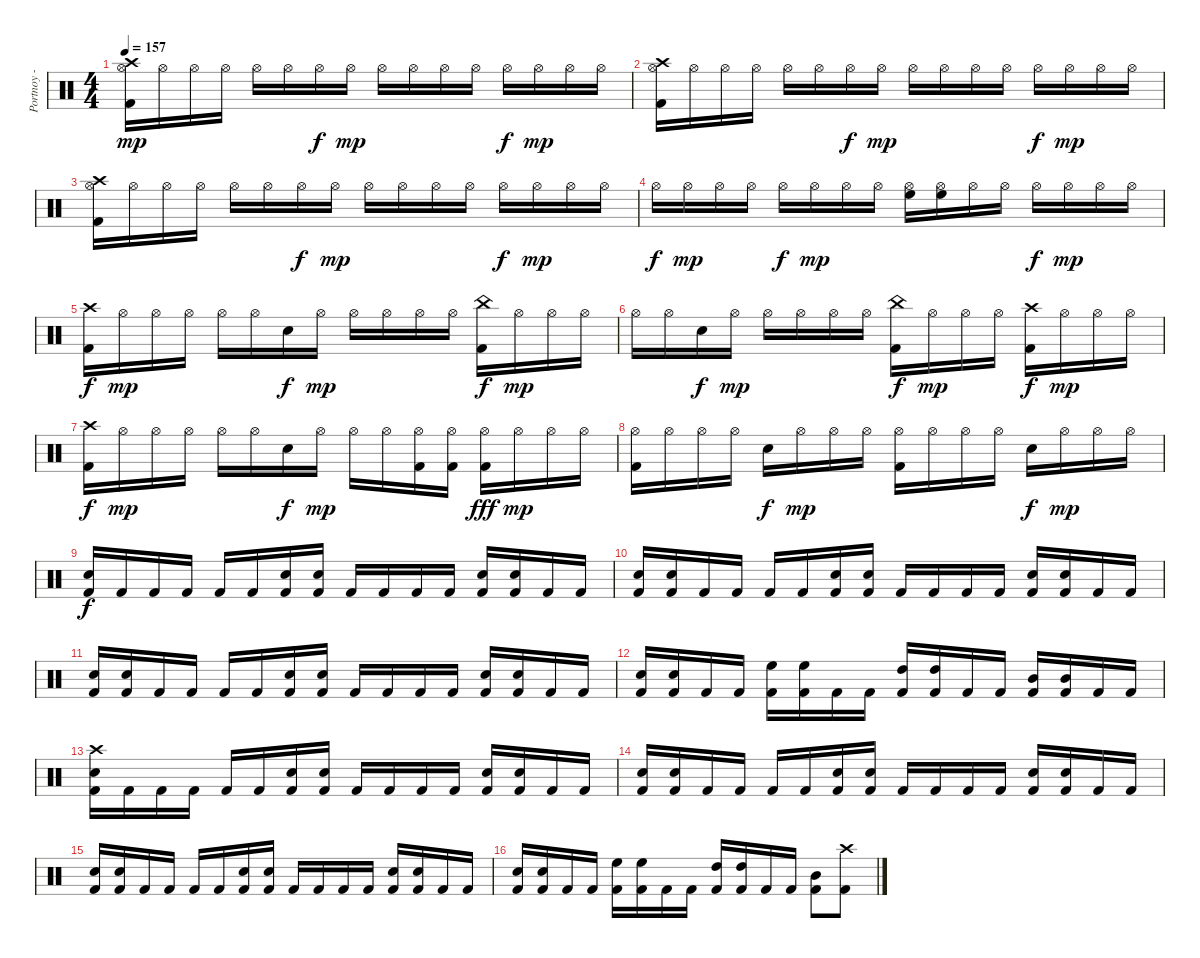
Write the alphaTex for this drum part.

\track ("Portnoy - Drums" "Portnoy - ") {instrument percussion}
\staff {score}
\articulation defaults
\ts (4 4)
\tempo 157
\clef neutral
\ks c
("Crash high (hit)" "Kick (hit) 2" "Hi-Hat (open)").16{dy mp} "Hi-Hat (open)".16 "Hi-Hat (open)".16 "Hi-Hat (open)".16 "Hi-Hat (open)".16 "Hi-Hat (open)".16 "Hi-Hat (open)".16{dy f} "Hi-Hat (open)".16{dy mp} "Hi-Hat (open)".16 "Hi-Hat (open)".16 "Hi-Hat (open)".16 "Hi-Hat (open)".16 "Hi-Hat (open)".16{dy f} "Hi-Hat (open)".16{dy mp} "Hi-Hat (open)".16 "Hi-Hat (open)".16 |
("Crash high (hit)" "Kick (hit) 2" "Hi-Hat (open)").16 "Hi-Hat (open)".16 "Hi-Hat (open)".16 "Hi-Hat (open)".16 "Hi-Hat (open)".16 "Hi-Hat (open)".16 "Hi-Hat (open)".16{dy f} "Hi-Hat (open)".16{dy mp} "Hi-Hat (open)".16 "Hi-Hat (open)".16 "Hi-Hat (open)".16 "Hi-Hat (open)".16 "Hi-Hat (open)".16{dy f} "Hi-Hat (open)".16{dy mp} "Hi-Hat (open)".16 "Hi-Hat (open)".16 |
("Hi-Hat (open)" "Crash high (hit)" "Kick (hit) 2").16 "Hi-Hat (open)".16 "Hi-Hat (open)".16 "Hi-Hat (open)".16 "Hi-Hat (open)".16 "Hi-Hat (open)".16 "Hi-Hat (open)".16{dy f} "Hi-Hat (open)".16{dy mp} "Hi-Hat (open)".16 "Hi-Hat (open)".16 "Hi-Hat (open)".16 "Hi-Hat (open)".16 "Hi-Hat (open)".16{dy f} "Hi-Hat (open)".16{dy mp} "Hi-Hat (open)".16 "Hi-Hat (open)".16 |
"Hi-Hat (open)".16{dy f} "Hi-Hat (open)".16{dy mp} "Hi-Hat (open)".16 "Hi-Hat (open)".16 "Hi-Hat (open)".16{dy f} "Hi-Hat (open)".16{dy mp} "Hi-Hat (open)".16 "Hi-Hat (open)".16 ("Hi-Hat (open)" "High Floor Tom (hit)").16 ("Hi-Hat (open)" "High Floor Tom (hit)").16 "Hi-Hat (open)".16 "Hi-Hat (open)".16 "Hi-Hat (open)".16{dy f} "Hi-Hat (open)".16{dy mp} "Hi-Hat (open)".16 "Hi-Hat (open)".16 |
("Crash high (hit)" "Kick (hit) 2").16{dy f} "Hi-Hat (open)".16{dy mp} "Hi-Hat (open)".16 "Hi-Hat (open)".16 "Hi-Hat (open)".16 "Hi-Hat (open)".16 "Electric Snare (hit)".16{dy f} "Hi-Hat (open)".16{dy mp} "Hi-Hat (open)".16 "Hi-Hat (open)".16 "Hi-Hat (open)".16 "Hi-Hat (open)".16 ("China (hit)" "Kick (hit) 2").16{dy f} "Hi-Hat (open)".16{dy mp} "Hi-Hat (open)".16 "Hi-Hat (open)".16 |
"Hi-Hat (open)".16 "Hi-Hat (open)".16 "Electric Snare (hit)".16{dy f} "Hi-Hat (open)".16{dy mp} "Hi-Hat (open)".16 "Hi-Hat (open)".16 "Hi-Hat (open)".16 "Hi-Hat (open)".16 ("China (hit)" "Kick (hit) 2").16{dy f} "Hi-Hat (open)".16{dy mp} "Hi-Hat (open)".16 "Hi-Hat (open)".16 ("Crash high (hit)" "Kick (hit) 2").16{dy f} "Hi-Hat (open)".16{dy mp} "Hi-Hat (open)".16 "Hi-Hat (open)".16 |
("Kick (hit) 2" "Crash high (hit)").16{dy f} "Hi-Hat (open)".16{dy mp} "Hi-Hat (open)".16 "Hi-Hat (open)".16 "Hi-Hat (open)".16 "Hi-Hat (open)".16 "Electric Snare (hit)".16{dy f} "Hi-Hat (open)".16{dy mp} "Hi-Hat (open)".16 "Hi-Hat (open)".16 ("Kick (hit) 2" "Hi-Hat (open)").16 ("Kick (hit) 2" "Hi-Hat (open)").16 ("Hi-Hat (open)" "Kick (hit) 2").16{dy fff} "Hi-Hat (open)".16{dy mp} "Hi-Hat (open)".16 "Hi-Hat (open)".16 |
("Kick (hit) 2" "Hi-Hat (open)").16 "Hi-Hat (open)".16 "Hi-Hat (open)".16 "Hi-Hat (open)".16 "Electric Snare (hit)".16{dy f} "Hi-Hat (open)".16{dy mp} "Hi-Hat (open)".16 "Hi-Hat (open)".16 ("Kick (hit) 2" "Hi-Hat (open)").16 "Hi-Hat (open)".16 "Hi-Hat (open)".16 "Hi-Hat (open)".16 "Electric Snare (hit)".16{dy f} "Hi-Hat (open)".16{dy mp} "Hi-Hat (open)".16 "Hi-Hat (open)".16 |
("Electric Snare (hit)" "Kick (hit) 2").16{dy f} "Kick (hit) 2".16 "Kick (hit) 2".16 "Kick (hit) 2".16 "Kick (hit) 2".16 "Kick (hit) 2".16 ("Kick (hit) 2" "Electric Snare (hit)").16 ("Kick (hit) 2" "Electric Snare (hit)").16 "Kick (hit) 2".16 "Kick (hit) 2".16 "Kick (hit) 2".16 "Kick (hit) 2".16 ("Kick (hit) 2" "Electric Snare (hit)").16 ("Kick (hit) 2" "Electric Snare (hit)").16 "Kick (hit) 2".16 "Kick (hit) 2".16 |
("Kick (hit) 2" "Electric Snare (hit)").16 ("Kick (hit) 2" "Electric Snare (hit)").16 "Kick (hit) 2".16 "Kick (hit) 2".16 "Kick (hit) 2".16 "Kick (hit) 2".16 ("Kick (hit) 2" "Electric Snare (hit)").16 ("Kick (hit) 2" "Electric Snare (hit)").16 "Kick (hit) 2".16 "Kick (hit) 2".16 "Kick (hit) 2".16 "Kick (hit) 2".16 ("Kick (hit) 2" "Electric Snare (hit)").16 ("Kick (hit) 2" "Electric Snare (hit)").16 "Kick (hit) 2".16 "Kick (hit) 2".16 |
("Kick (hit) 2" "Electric Snare (hit)").16 ("Kick (hit) 2" "Electric Snare (hit)").16 "Kick (hit) 2".16 "Kick (hit) 2".16 "Kick (hit) 2".16 "Kick (hit) 2".16 ("Kick (hit) 2" "Electric Snare (hit)").16 ("Kick (hit) 2" "Electric Snare (hit)").16 "Kick (hit) 2".16 "Kick (hit) 2".16 "Kick (hit) 2".16 "Kick (hit) 2".16 ("Kick (hit) 2" "Electric Snare (hit)").16 ("Kick (hit) 2" "Electric Snare (hit)").16 "Kick (hit) 2".16 "Kick (hit) 2".16 |
("Kick (hit) 2" "Electric Snare (hit)").16 ("Kick (hit) 2" "Electric Snare (hit)").16 "Kick (hit) 2".16 "Kick (hit) 2".16 ("Kick (hit) 2" "High Floor Tom (hit)").16 ("Kick (hit) 2" "High Floor Tom (hit)").16 "Kick (hit) 2".16 "Kick (hit) 2".16 ("Kick (hit) 2" "High Tom (hit)").16 ("Kick (hit) 2" "High Tom (hit)").16 "Kick (hit) 2".16 "Kick (hit) 2".16 ("Kick (hit) 2" "Mid Tom (hit)").16 ("Kick (hit) 2" "Mid Tom (hit)").16 "Kick (hit) 2".16 "Kick (hit) 2".16 |
("Kick (hit) 2" "Crash high (hit)" "Electric Snare (hit)").16 "Kick (hit) 2".16 "Kick (hit) 2".16 "Kick (hit) 2".16 "Kick (hit) 2".16 "Kick (hit) 2".16 ("Kick (hit) 2" "Electric Snare (hit)").16 ("Kick (hit) 2" "Electric Snare (hit)").16 "Kick (hit) 2".16 "Kick (hit) 2".16 "Kick (hit) 2".16 "Kick (hit) 2".16 ("Kick (hit) 2" "Electric Snare (hit)").16 ("Kick (hit) 2" "Electric Snare (hit)").16 "Kick (hit) 2".16 "Kick (hit) 2".16 |
("Kick (hit) 2" "Electric Snare (hit)").16 ("Kick (hit) 2" "Electric Snare (hit)").16 "Kick (hit) 2".16 "Kick (hit) 2".16 "Kick (hit) 2".16 "Kick (hit) 2".16 ("Kick (hit) 2" "Electric Snare (hit)").16 ("Kick (hit) 2" "Electric Snare (hit)").16 "Kick (hit) 2".16 "Kick (hit) 2".16 "Kick (hit) 2".16 "Kick (hit) 2".16 ("Kick (hit) 2" "Electric Snare (hit)").16 ("Kick (hit) 2" "Electric Snare (hit)").16 "Kick (hit) 2".16 "Kick (hit) 2".16 |
("Kick (hit) 2" "Electric Snare (hit)").16 ("Kick (hit) 2" "Electric Snare (hit)").16 "Kick (hit) 2".16 "Kick (hit) 2".16 "Kick (hit) 2".16 "Kick (hit) 2".16 ("Kick (hit) 2" "Electric Snare (hit)").16 ("Kick (hit) 2" "Electric Snare (hit)").16 "Kick (hit) 2".16 "Kick (hit) 2".16 "Kick (hit) 2".16 "Kick (hit) 2".16 ("Kick (hit) 2" "Electric Snare (hit)").16 ("Kick (hit) 2" "Electric Snare (hit)").16 "Kick (hit) 2".16 "Kick (hit) 2".16 |
("Kick (hit) 2" "Electric Snare (hit)").16 ("Kick (hit) 2" "Electric Snare (hit)").16 "Kick (hit) 2".16 "Kick (hit) 2".16 ("Kick (hit) 2" "High Floor Tom (hit)").16 ("Kick (hit) 2" "High Floor Tom (hit)").16 "Kick (hit) 2".16 "Kick (hit) 2".16 ("Kick (hit) 2" "High Tom (hit)").16 ("Kick (hit) 2" "High Tom (hit)").16 "Kick (hit) 2".16 "Kick (hit) 2".16 ("Kick (hit) 2" "Mid Tom (hit)").8 ("Kick (hit) 2" "Crash high (hit)").8
